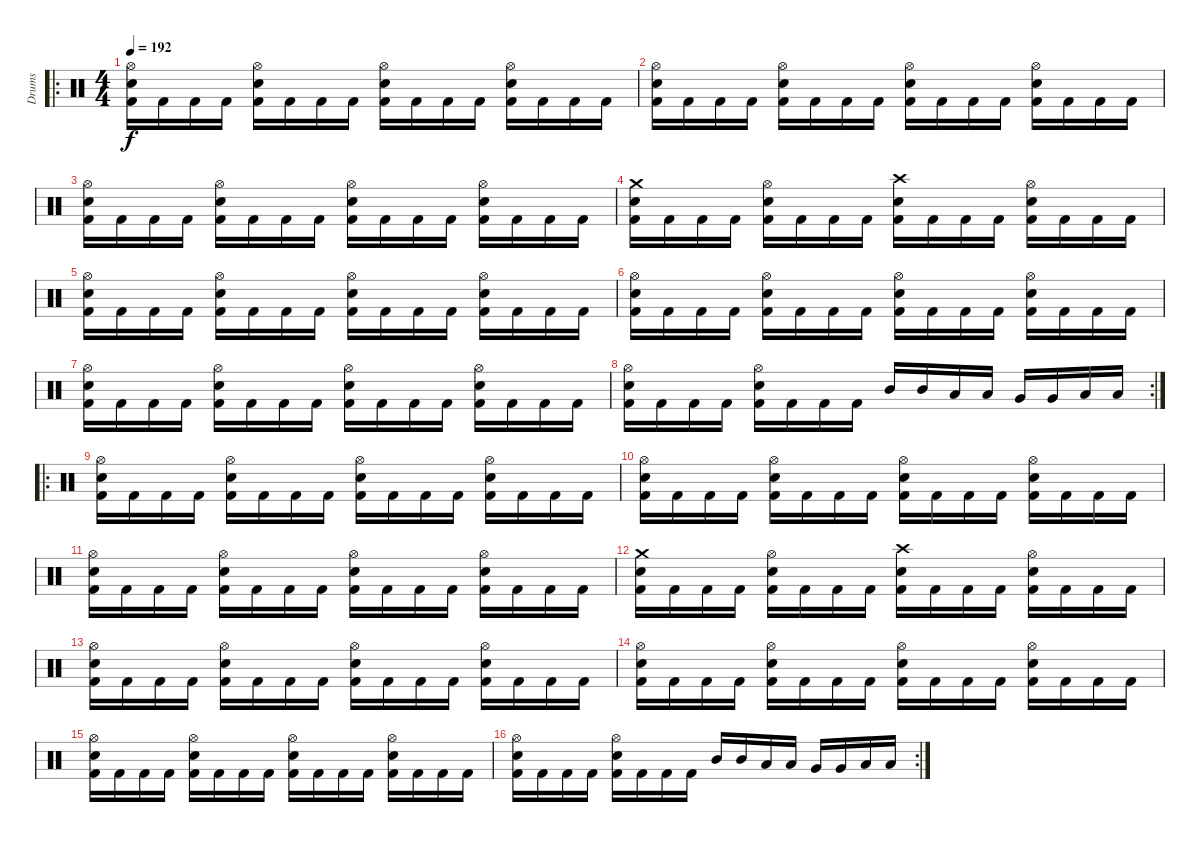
\track ("Drums" "Drums") {instrument percussion}
\staff {score}
\articulation defaults
\ro
\ts (4 4)
\tempo 192
\clef neutral
\ks c
("Hi-Hat (open)" "Snare (hit) 2" "Kick (hit) 2").16{dy f} "Kick (hit) 2".16 "Kick (hit) 2".16 "Kick (hit) 2".16 ("Hi-Hat (open)" "Snare (hit) 2" "Kick (hit) 2").16 "Kick (hit) 2".16 "Kick (hit) 2".16 "Kick (hit) 2".16 ("Hi-Hat (open)" "Snare (hit) 2" "Kick (hit) 2").16 "Kick (hit) 2".16 "Kick (hit) 2".16 "Kick (hit) 2".16 ("Hi-Hat (open)" "Snare (hit) 2" "Kick (hit) 2").16 "Kick (hit) 2".16 "Kick (hit) 2".16 "Kick (hit) 2".16 |
("Hi-Hat (open)" "Snare (hit) 2" "Kick (hit) 2").16 "Kick (hit) 2".16 "Kick (hit) 2".16 "Kick (hit) 2".16 ("Hi-Hat (open)" "Snare (hit) 2" "Kick (hit) 2").16 "Kick (hit) 2".16 "Kick (hit) 2".16 "Kick (hit) 2".16 ("Hi-Hat (open)" "Snare (hit) 2" "Kick (hit) 2").16 "Kick (hit) 2".16 "Kick (hit) 2".16 "Kick (hit) 2".16 ("Hi-Hat (open)" "Snare (hit) 2" "Kick (hit) 2").16 "Kick (hit) 2".16 "Kick (hit) 2".16 "Kick (hit) 2".16 |
("Hi-Hat (open)" "Snare (hit) 2" "Kick (hit) 2").16 "Kick (hit) 2".16 "Kick (hit) 2".16 "Kick (hit) 2".16 ("Hi-Hat (open)" "Snare (hit) 2" "Kick (hit) 2").16 "Kick (hit) 2".16 "Kick (hit) 2".16 "Kick (hit) 2".16 ("Hi-Hat (open)" "Snare (hit) 2" "Kick (hit) 2").16 "Kick (hit) 2".16 "Kick (hit) 2".16 "Kick (hit) 2".16 ("Hi-Hat (open)" "Snare (hit) 2" "Kick (hit) 2").16 "Kick (hit) 2".16 "Kick (hit) 2".16 "Kick (hit) 2".16 |
("Crash medium (hit)" "Snare (hit) 2" "Kick (hit) 2").16 "Kick (hit) 2".16 "Kick (hit) 2".16 "Kick (hit) 2".16 ("Hi-Hat (open)" "Snare (hit) 2" "Kick (hit) 2").16 "Kick (hit) 2".16 "Kick (hit) 2".16 "Kick (hit) 2".16 ("Crash high (hit)" "Snare (hit) 2" "Kick (hit) 2").16 "Kick (hit) 2".16 "Kick (hit) 2".16 "Kick (hit) 2".16 ("Hi-Hat (open)" "Snare (hit) 2" "Kick (hit) 2").16 "Kick (hit) 2".16 "Kick (hit) 2".16 "Kick (hit) 2".16 |
("Hi-Hat (open)" "Snare (hit) 2" "Kick (hit) 2").16 "Kick (hit) 2".16 "Kick (hit) 2".16 "Kick (hit) 2".16 ("Hi-Hat (open)" "Snare (hit) 2" "Kick (hit) 2").16 "Kick (hit) 2".16 "Kick (hit) 2".16 "Kick (hit) 2".16 ("Hi-Hat (open)" "Snare (hit) 2" "Kick (hit) 2").16 "Kick (hit) 2".16 "Kick (hit) 2".16 "Kick (hit) 2".16 ("Hi-Hat (open)" "Snare (hit) 2" "Kick (hit) 2").16 "Kick (hit) 2".16 "Kick (hit) 2".16 "Kick (hit) 2".16 |
("Hi-Hat (open)" "Snare (hit) 2" "Kick (hit) 2").16 "Kick (hit) 2".16 "Kick (hit) 2".16 "Kick (hit) 2".16 ("Hi-Hat (open)" "Snare (hit) 2" "Kick (hit) 2").16 "Kick (hit) 2".16 "Kick (hit) 2".16 "Kick (hit) 2".16 ("Hi-Hat (open)" "Snare (hit) 2" "Kick (hit) 2").16 "Kick (hit) 2".16 "Kick (hit) 2".16 "Kick (hit) 2".16 ("Hi-Hat (open)" "Snare (hit) 2" "Kick (hit) 2").16 "Kick (hit) 2".16 "Kick (hit) 2".16 "Kick (hit) 2".16 |
("Hi-Hat (open)" "Snare (hit) 2" "Kick (hit) 2").16 "Kick (hit) 2".16 "Kick (hit) 2".16 "Kick (hit) 2".16 ("Hi-Hat (open)" "Snare (hit) 2" "Kick (hit) 2").16 "Kick (hit) 2".16 "Kick (hit) 2".16 "Kick (hit) 2".16 ("Hi-Hat (open)" "Snare (hit) 2" "Kick (hit) 2").16 "Kick (hit) 2".16 "Kick (hit) 2".16 "Kick (hit) 2".16 ("Hi-Hat (open)" "Snare (hit) 2" "Kick (hit) 2").16 "Kick (hit) 2".16 "Kick (hit) 2".16 "Kick (hit) 2".16 |
\rc 2
("Hi-Hat (open)" "Snare (hit) 2" "Kick (hit) 2").16 "Kick (hit) 2".16 "Kick (hit) 2".16 "Kick (hit) 2".16 ("Hi-Hat (open)" "Snare (hit) 2" "Kick (hit) 2").16 "Kick (hit) 2".16 "Kick (hit) 2".16 "Kick (hit) 2".16 "Mid Tom (hit)".16 "Mid Tom (hit)".16 "Low Tom (hit)".16 "Low Tom (hit)".16 "Very Low Tom (hit)".16 "Very Low Tom (hit)".16 "Low Floor Tom (hit)".16 "Low Floor Tom (hit)".16 |
\ro
("Hi-Hat (open)" "Snare (hit) 2" "Kick (hit) 2").16 "Kick (hit) 2".16 "Kick (hit) 2".16 "Kick (hit) 2".16 ("Hi-Hat (open)" "Snare (hit) 2" "Kick (hit) 2").16 "Kick (hit) 2".16 "Kick (hit) 2".16 "Kick (hit) 2".16 ("Hi-Hat (open)" "Snare (hit) 2" "Kick (hit) 2").16 "Kick (hit) 2".16 "Kick (hit) 2".16 "Kick (hit) 2".16 ("Hi-Hat (open)" "Snare (hit) 2" "Kick (hit) 2").16 "Kick (hit) 2".16 "Kick (hit) 2".16 "Kick (hit) 2".16 |
("Hi-Hat (open)" "Snare (hit) 2" "Kick (hit) 2").16 "Kick (hit) 2".16 "Kick (hit) 2".16 "Kick (hit) 2".16 ("Hi-Hat (open)" "Snare (hit) 2" "Kick (hit) 2").16 "Kick (hit) 2".16 "Kick (hit) 2".16 "Kick (hit) 2".16 ("Hi-Hat (open)" "Snare (hit) 2" "Kick (hit) 2").16 "Kick (hit) 2".16 "Kick (hit) 2".16 "Kick (hit) 2".16 ("Hi-Hat (open)" "Snare (hit) 2" "Kick (hit) 2").16 "Kick (hit) 2".16 "Kick (hit) 2".16 "Kick (hit) 2".16 |
("Hi-Hat (open)" "Snare (hit) 2" "Kick (hit) 2").16 "Kick (hit) 2".16 "Kick (hit) 2".16 "Kick (hit) 2".16 ("Hi-Hat (open)" "Snare (hit) 2" "Kick (hit) 2").16 "Kick (hit) 2".16 "Kick (hit) 2".16 "Kick (hit) 2".16 ("Hi-Hat (open)" "Snare (hit) 2" "Kick (hit) 2").16 "Kick (hit) 2".16 "Kick (hit) 2".16 "Kick (hit) 2".16 ("Hi-Hat (open)" "Snare (hit) 2" "Kick (hit) 2").16 "Kick (hit) 2".16 "Kick (hit) 2".16 "Kick (hit) 2".16 |
("Crash medium (hit)" "Snare (hit) 2" "Kick (hit) 2").16 "Kick (hit) 2".16 "Kick (hit) 2".16 "Kick (hit) 2".16 ("Hi-Hat (open)" "Snare (hit) 2" "Kick (hit) 2").16 "Kick (hit) 2".16 "Kick (hit) 2".16 "Kick (hit) 2".16 ("Crash high (hit)" "Snare (hit) 2" "Kick (hit) 2").16 "Kick (hit) 2".16 "Kick (hit) 2".16 "Kick (hit) 2".16 ("Hi-Hat (open)" "Snare (hit) 2" "Kick (hit) 2").16 "Kick (hit) 2".16 "Kick (hit) 2".16 "Kick (hit) 2".16 |
("Hi-Hat (open)" "Snare (hit) 2" "Kick (hit) 2").16 "Kick (hit) 2".16 "Kick (hit) 2".16 "Kick (hit) 2".16 ("Hi-Hat (open)" "Snare (hit) 2" "Kick (hit) 2").16 "Kick (hit) 2".16 "Kick (hit) 2".16 "Kick (hit) 2".16 ("Hi-Hat (open)" "Snare (hit) 2" "Kick (hit) 2").16 "Kick (hit) 2".16 "Kick (hit) 2".16 "Kick (hit) 2".16 ("Hi-Hat (open)" "Snare (hit) 2" "Kick (hit) 2").16 "Kick (hit) 2".16 "Kick (hit) 2".16 "Kick (hit) 2".16 |
("Hi-Hat (open)" "Snare (hit) 2" "Kick (hit) 2").16 "Kick (hit) 2".16 "Kick (hit) 2".16 "Kick (hit) 2".16 ("Hi-Hat (open)" "Snare (hit) 2" "Kick (hit) 2").16 "Kick (hit) 2".16 "Kick (hit) 2".16 "Kick (hit) 2".16 ("Hi-Hat (open)" "Snare (hit) 2" "Kick (hit) 2").16 "Kick (hit) 2".16 "Kick (hit) 2".16 "Kick (hit) 2".16 ("Hi-Hat (open)" "Snare (hit) 2" "Kick (hit) 2").16 "Kick (hit) 2".16 "Kick (hit) 2".16 "Kick (hit) 2".16 |
("Hi-Hat (open)" "Snare (hit) 2" "Kick (hit) 2").16 "Kick (hit) 2".16 "Kick (hit) 2".16 "Kick (hit) 2".16 ("Hi-Hat (open)" "Snare (hit) 2" "Kick (hit) 2").16 "Kick (hit) 2".16 "Kick (hit) 2".16 "Kick (hit) 2".16 ("Hi-Hat (open)" "Snare (hit) 2" "Kick (hit) 2").16 "Kick (hit) 2".16 "Kick (hit) 2".16 "Kick (hit) 2".16 ("Hi-Hat (open)" "Snare (hit) 2" "Kick (hit) 2").16 "Kick (hit) 2".16 "Kick (hit) 2".16 "Kick (hit) 2".16 |
\rc 2
("Hi-Hat (open)" "Snare (hit) 2" "Kick (hit) 2").16 "Kick (hit) 2".16 "Kick (hit) 2".16 "Kick (hit) 2".16 ("Hi-Hat (open)" "Snare (hit) 2" "Kick (hit) 2").16 "Kick (hit) 2".16 "Kick (hit) 2".16 "Kick (hit) 2".16 "Mid Tom (hit)".16 "Mid Tom (hit)".16 "Low Tom (hit)".16 "Low Tom (hit)".16 "Very Low Tom (hit)".16 "Very Low Tom (hit)".16 "Low Floor Tom (hit)".16 "Low Floor Tom (hit)".16
